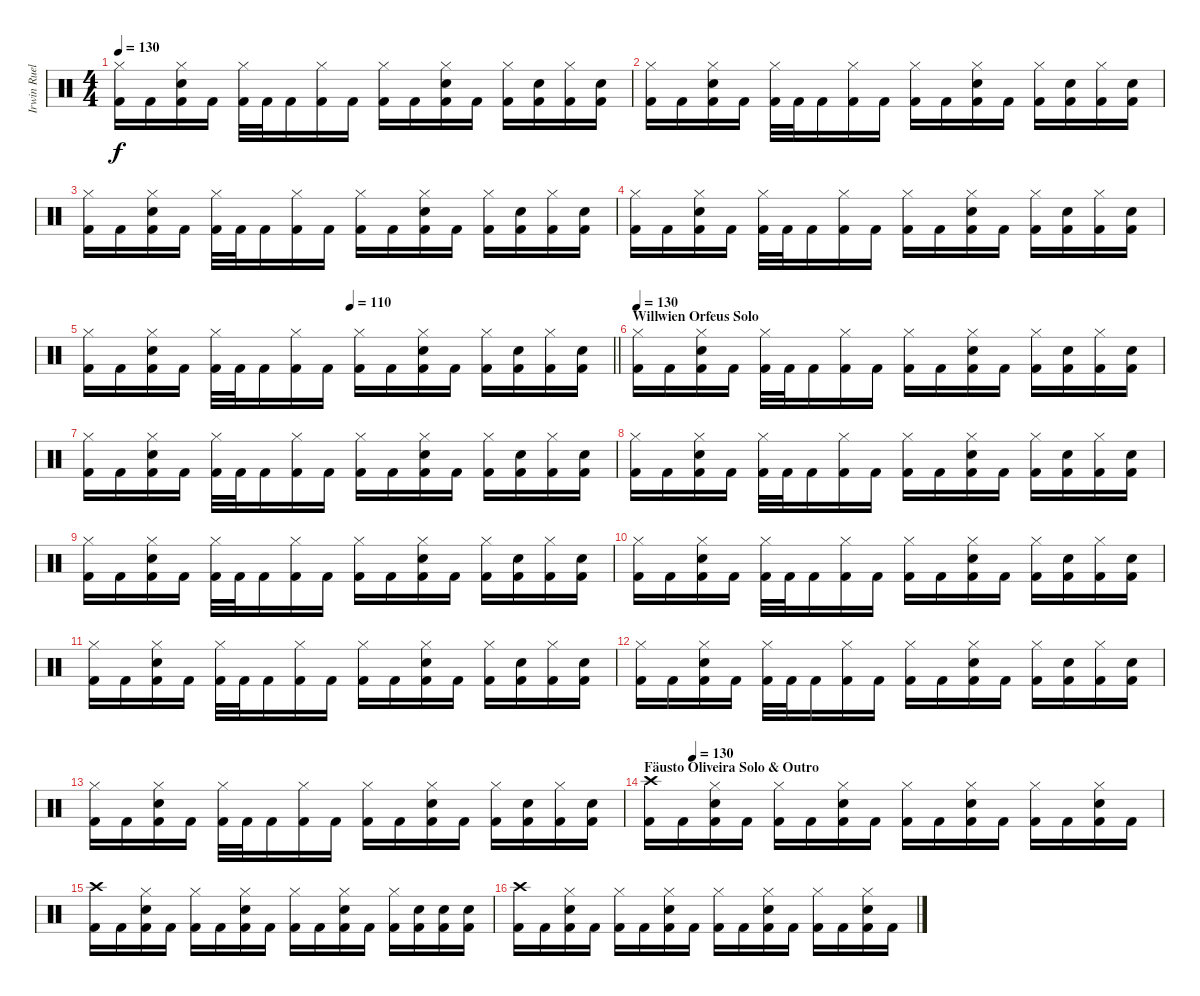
\track ("Irwin Ruelas (Drums)" "Irwin Ruel") {instrument percussion}
\staff {score}
\articulation defaults
\ts (4 4)
\tempo 130
\clef neutral
\ks c
("Hi-Hat (closed)" "Kick (hit) 2").16{dy f} "Kick (hit) 2".16 ("Hi-Hat (closed)" "Snare (hit) 2" "Kick (hit) 2").16 "Kick (hit) 2".16 ("Hi-Hat (closed)" "Kick (hit) 2").32 "Kick (hit) 2".32 "Kick (hit) 2".16 ("Hi-Hat (closed)" "Kick (hit) 2").16 "Kick (hit) 2".16 ("Hi-Hat (closed)" "Kick (hit) 2").16 "Kick (hit) 2".16 ("Hi-Hat (closed)" "Snare (hit) 2" "Kick (hit) 2").16 "Kick (hit) 2".16 ("Hi-Hat (closed)" "Kick (hit) 2").16 ("Snare (hit) 2" "Kick (hit) 2").16 ("Hi-Hat (closed)" "Kick (hit) 2").16 ("Snare (hit) 2" "Kick (hit) 2").16 |
("Hi-Hat (closed)" "Kick (hit) 2").16 "Kick (hit) 2".16 ("Hi-Hat (closed)" "Snare (hit) 2" "Kick (hit) 2").16 "Kick (hit) 2".16 ("Hi-Hat (closed)" "Kick (hit) 2").32 "Kick (hit) 2".32 "Kick (hit) 2".16 ("Hi-Hat (closed)" "Kick (hit) 2").16 "Kick (hit) 2".16 ("Hi-Hat (closed)" "Kick (hit) 2").16 "Kick (hit) 2".16 ("Hi-Hat (closed)" "Snare (hit) 2" "Kick (hit) 2").16 "Kick (hit) 2".16 ("Hi-Hat (closed)" "Kick (hit) 2").16 ("Snare (hit) 2" "Kick (hit) 2").16 ("Hi-Hat (closed)" "Kick (hit) 2").16 ("Snare (hit) 2" "Kick (hit) 2").16 |
("Hi-Hat (closed)" "Kick (hit) 2").16 "Kick (hit) 2".16 ("Hi-Hat (closed)" "Snare (hit) 2" "Kick (hit) 2").16 "Kick (hit) 2".16 ("Hi-Hat (closed)" "Kick (hit) 2").32 "Kick (hit) 2".32 "Kick (hit) 2".16 ("Hi-Hat (closed)" "Kick (hit) 2").16 "Kick (hit) 2".16 ("Hi-Hat (closed)" "Kick (hit) 2").16 "Kick (hit) 2".16 ("Hi-Hat (closed)" "Snare (hit) 2" "Kick (hit) 2").16 "Kick (hit) 2".16 ("Hi-Hat (closed)" "Kick (hit) 2").16 ("Snare (hit) 2" "Kick (hit) 2").16 ("Hi-Hat (closed)" "Kick (hit) 2").16 ("Snare (hit) 2" "Kick (hit) 2").16 |
("Hi-Hat (closed)" "Kick (hit) 2").16 "Kick (hit) 2".16 ("Hi-Hat (closed)" "Snare (hit) 2" "Kick (hit) 2").16 "Kick (hit) 2".16 ("Hi-Hat (closed)" "Kick (hit) 2").32 "Kick (hit) 2".32 "Kick (hit) 2".16 ("Hi-Hat (closed)" "Kick (hit) 2").16 "Kick (hit) 2".16 ("Hi-Hat (closed)" "Kick (hit) 2").16 "Kick (hit) 2".16 ("Hi-Hat (closed)" "Snare (hit) 2" "Kick (hit) 2").16 "Kick (hit) 2".16 ("Hi-Hat (closed)" "Kick (hit) 2").16 ("Snare (hit) 2" "Kick (hit) 2").16 ("Hi-Hat (closed)" "Kick (hit) 2").16 ("Snare (hit) 2" "Kick (hit) 2").16 |
\tempo (110 0.5)
\barLineRight lightlight
("Hi-Hat (closed)" "Kick (hit) 2").16 "Kick (hit) 2".16 ("Hi-Hat (closed)" "Snare (hit) 2" "Kick (hit) 2").16 "Kick (hit) 2".16 ("Hi-Hat (closed)" "Kick (hit) 2").32 "Kick (hit) 2".32 "Kick (hit) 2".16 ("Hi-Hat (closed)" "Kick (hit) 2").16 "Kick (hit) 2".16 ("Hi-Hat (closed)" "Kick (hit) 2").16 "Kick (hit) 2".16 ("Hi-Hat (closed)" "Snare (hit) 2" "Kick (hit) 2").16 "Kick (hit) 2".16 ("Hi-Hat (closed)" "Kick (hit) 2").16 ("Snare (hit) 2" "Kick (hit) 2").16 ("Hi-Hat (closed)" "Kick (hit) 2").16 ("Snare (hit) 2" "Kick (hit) 2").16 |
\section ("" "Willwien Orfeus Solo")
\tempo 130
("Hi-Hat (closed)" "Kick (hit) 2").16 "Kick (hit) 2".16 ("Hi-Hat (closed)" "Snare (hit) 2" "Kick (hit) 2").16 "Kick (hit) 2".16 ("Hi-Hat (closed)" "Kick (hit) 2").32 "Kick (hit) 2".32 "Kick (hit) 2".16 ("Hi-Hat (closed)" "Kick (hit) 2").16 "Kick (hit) 2".16 ("Hi-Hat (closed)" "Kick (hit) 2").16 "Kick (hit) 2".16 ("Hi-Hat (closed)" "Snare (hit) 2" "Kick (hit) 2").16 "Kick (hit) 2".16 ("Hi-Hat (closed)" "Kick (hit) 2").16 ("Snare (hit) 2" "Kick (hit) 2").16 ("Hi-Hat (closed)" "Kick (hit) 2").16 ("Snare (hit) 2" "Kick (hit) 2").16 |
("Hi-Hat (closed)" "Kick (hit) 2").16 "Kick (hit) 2".16 ("Hi-Hat (closed)" "Snare (hit) 2" "Kick (hit) 2").16 "Kick (hit) 2".16 ("Hi-Hat (closed)" "Kick (hit) 2").32 "Kick (hit) 2".32 "Kick (hit) 2".16 ("Hi-Hat (closed)" "Kick (hit) 2").16 "Kick (hit) 2".16 ("Hi-Hat (closed)" "Kick (hit) 2").16 "Kick (hit) 2".16 ("Hi-Hat (closed)" "Snare (hit) 2" "Kick (hit) 2").16 "Kick (hit) 2".16 ("Hi-Hat (closed)" "Kick (hit) 2").16 ("Snare (hit) 2" "Kick (hit) 2").16 ("Hi-Hat (closed)" "Kick (hit) 2").16 ("Snare (hit) 2" "Kick (hit) 2").16 |
("Hi-Hat (closed)" "Kick (hit) 2").16 "Kick (hit) 2".16 ("Hi-Hat (closed)" "Snare (hit) 2" "Kick (hit) 2").16 "Kick (hit) 2".16 ("Hi-Hat (closed)" "Kick (hit) 2").32 "Kick (hit) 2".32 "Kick (hit) 2".16 ("Hi-Hat (closed)" "Kick (hit) 2").16 "Kick (hit) 2".16 ("Hi-Hat (closed)" "Kick (hit) 2").16 "Kick (hit) 2".16 ("Hi-Hat (closed)" "Snare (hit) 2" "Kick (hit) 2").16 "Kick (hit) 2".16 ("Hi-Hat (closed)" "Kick (hit) 2").16 ("Snare (hit) 2" "Kick (hit) 2").16 ("Hi-Hat (closed)" "Kick (hit) 2").16 ("Snare (hit) 2" "Kick (hit) 2").16 |
("Hi-Hat (closed)" "Kick (hit) 2").16 "Kick (hit) 2".16 ("Hi-Hat (closed)" "Snare (hit) 2" "Kick (hit) 2").16 "Kick (hit) 2".16 ("Hi-Hat (closed)" "Kick (hit) 2").32 "Kick (hit) 2".32 "Kick (hit) 2".16 ("Hi-Hat (closed)" "Kick (hit) 2").16 "Kick (hit) 2".16 ("Hi-Hat (closed)" "Kick (hit) 2").16 "Kick (hit) 2".16 ("Hi-Hat (closed)" "Snare (hit) 2" "Kick (hit) 2").16 "Kick (hit) 2".16 ("Hi-Hat (closed)" "Kick (hit) 2").16 ("Snare (hit) 2" "Kick (hit) 2").16 ("Hi-Hat (closed)" "Kick (hit) 2").16 ("Snare (hit) 2" "Kick (hit) 2").16 |
("Hi-Hat (closed)" "Kick (hit) 2").16 "Kick (hit) 2".16 ("Hi-Hat (closed)" "Snare (hit) 2" "Kick (hit) 2").16 "Kick (hit) 2".16 ("Hi-Hat (closed)" "Kick (hit) 2").32 "Kick (hit) 2".32 "Kick (hit) 2".16 ("Hi-Hat (closed)" "Kick (hit) 2").16 "Kick (hit) 2".16 ("Hi-Hat (closed)" "Kick (hit) 2").16 "Kick (hit) 2".16 ("Hi-Hat (closed)" "Snare (hit) 2" "Kick (hit) 2").16 "Kick (hit) 2".16 ("Hi-Hat (closed)" "Kick (hit) 2").16 ("Snare (hit) 2" "Kick (hit) 2").16 ("Hi-Hat (closed)" "Kick (hit) 2").16 ("Snare (hit) 2" "Kick (hit) 2").16 |
("Hi-Hat (closed)" "Kick (hit) 2").16 "Kick (hit) 2".16 ("Hi-Hat (closed)" "Snare (hit) 2" "Kick (hit) 2").16 "Kick (hit) 2".16 ("Hi-Hat (closed)" "Kick (hit) 2").32 "Kick (hit) 2".32 "Kick (hit) 2".16 ("Hi-Hat (closed)" "Kick (hit) 2").16 "Kick (hit) 2".16 ("Hi-Hat (closed)" "Kick (hit) 2").16 "Kick (hit) 2".16 ("Hi-Hat (closed)" "Snare (hit) 2" "Kick (hit) 2").16 "Kick (hit) 2".16 ("Hi-Hat (closed)" "Kick (hit) 2").16 ("Snare (hit) 2" "Kick (hit) 2").16 ("Hi-Hat (closed)" "Kick (hit) 2").16 ("Snare (hit) 2" "Kick (hit) 2").16 |
("Hi-Hat (closed)" "Kick (hit) 2").16 "Kick (hit) 2".16 ("Hi-Hat (closed)" "Snare (hit) 2" "Kick (hit) 2").16 "Kick (hit) 2".16 ("Hi-Hat (closed)" "Kick (hit) 2").32 "Kick (hit) 2".32 "Kick (hit) 2".16 ("Hi-Hat (closed)" "Kick (hit) 2").16 "Kick (hit) 2".16 ("Hi-Hat (closed)" "Kick (hit) 2").16 "Kick (hit) 2".16 ("Hi-Hat (closed)" "Snare (hit) 2" "Kick (hit) 2").16 "Kick (hit) 2".16 ("Hi-Hat (closed)" "Kick (hit) 2").16 ("Snare (hit) 2" "Kick (hit) 2").16 ("Hi-Hat (closed)" "Kick (hit) 2").16 ("Snare (hit) 2" "Kick (hit) 2").16 |
("Hi-Hat (closed)" "Kick (hit) 2").16 "Kick (hit) 2".16 ("Hi-Hat (closed)" "Snare (hit) 2" "Kick (hit) 2").16 "Kick (hit) 2".16 ("Hi-Hat (closed)" "Kick (hit) 2").32 "Kick (hit) 2".32 "Kick (hit) 2".16 ("Hi-Hat (closed)" "Kick (hit) 2").16 "Kick (hit) 2".16 ("Hi-Hat (closed)" "Kick (hit) 2").16 "Kick (hit) 2".16 ("Hi-Hat (closed)" "Snare (hit) 2" "Kick (hit) 2").16 "Kick (hit) 2".16 ("Hi-Hat (closed)" "Kick (hit) 2").16 ("Snare (hit) 2" "Kick (hit) 2").16 ("Hi-Hat (closed)" "Kick (hit) 2").16 ("Snare (hit) 2" "Kick (hit) 2").16 |
\section ("" "Fäusto Oliveira Solo & Outro")
\tempo (130 0.08333333333333333)
("Crash high (hit)" "Kick (hit) 2").16 "Kick (hit) 2".16 ("Hi-Hat (closed)" "Snare (hit) 2" "Kick (hit) 2").16 "Kick (hit) 2".16 ("Hi-Hat (closed)" "Kick (hit) 2").16 "Kick (hit) 2".16 ("Hi-Hat (closed)" "Snare (hit) 2" "Kick (hit) 2").16 "Kick (hit) 2".16 ("Hi-Hat (closed)" "Kick (hit) 2").16 "Kick (hit) 2".16 ("Hi-Hat (closed)" "Snare (hit) 2" "Kick (hit) 2").16 "Kick (hit) 2".16 ("Hi-Hat (closed)" "Kick (hit) 2").16 "Kick (hit) 2".16 ("Hi-Hat (closed)" "Snare (hit) 2" "Kick (hit) 2").16 "Kick (hit) 2".16 |
("Crash high (hit)" "Kick (hit) 2").16 "Kick (hit) 2".16 ("Hi-Hat (closed)" "Snare (hit) 2" "Kick (hit) 2").16 "Kick (hit) 2".16 ("Hi-Hat (closed)" "Kick (hit) 2").16 "Kick (hit) 2".16 ("Hi-Hat (closed)" "Snare (hit) 2" "Kick (hit) 2").16 "Kick (hit) 2".16 ("Hi-Hat (closed)" "Kick (hit) 2").16 "Kick (hit) 2".16 ("Hi-Hat (closed)" "Snare (hit) 2" "Kick (hit) 2").16 "Kick (hit) 2".16 ("Hi-Hat (closed)" "Kick (hit) 2").16 ("Snare (hit) 2" "Kick (hit) 2").16 ("Snare (hit) 2" "Kick (hit) 2").16 ("Snare (hit) 2" "Kick (hit) 2").16 |
("Crash high (hit)" "Kick (hit) 2").16 "Kick (hit) 2".16 ("Hi-Hat (closed)" "Snare (hit) 2" "Kick (hit) 2").16 "Kick (hit) 2".16 ("Hi-Hat (closed)" "Kick (hit) 2").16 "Kick (hit) 2".16 ("Hi-Hat (closed)" "Snare (hit) 2" "Kick (hit) 2").16 "Kick (hit) 2".16 ("Hi-Hat (closed)" "Kick (hit) 2").16 "Kick (hit) 2".16 ("Hi-Hat (closed)" "Snare (hit) 2" "Kick (hit) 2").16 "Kick (hit) 2".16 ("Hi-Hat (closed)" "Kick (hit) 2").16 "Kick (hit) 2".16 ("Hi-Hat (closed)" "Snare (hit) 2" "Kick (hit) 2").16 "Kick (hit) 2".16
